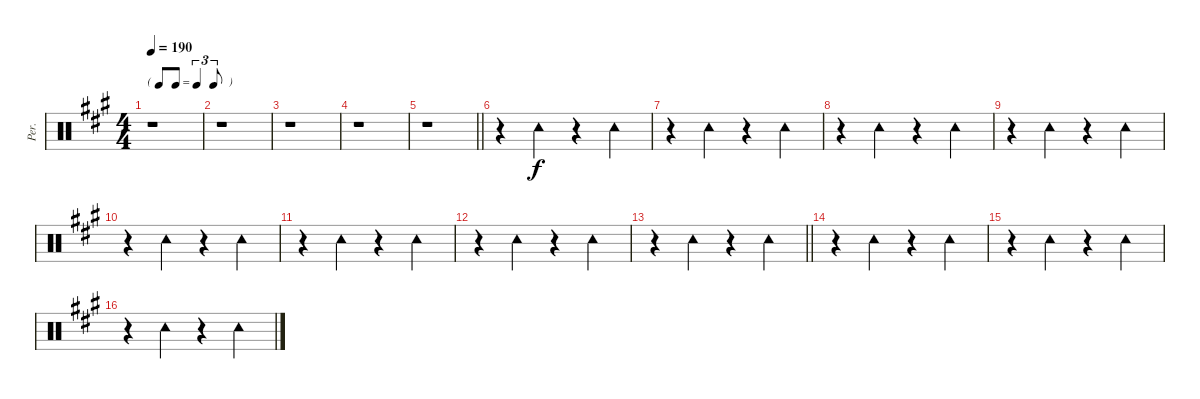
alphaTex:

\track ("Per." "Per.") {instrument percussion}
\staff {score}
\articulation defaults
\ts (4 4)
\tf triplet8th
\tempo 190
\clef neutral
\ks a
r.1{dy f} |
r.1 |
r.1 |
r.1 |
\barLineRight lightlight
r.1 |
r.4 "Tambourine (hit)".4 r.4 "Tambourine (hit)".4 |
r.4 "Tambourine (hit)".4 r.4 "Tambourine (hit)".4 |
r.4 "Tambourine (hit)".4 r.4 "Tambourine (hit)".4 |
r.4 "Tambourine (hit)".4 r.4 "Tambourine (hit)".4 |
r.4 "Tambourine (hit)".4 r.4 "Tambourine (hit)".4 |
r.4 "Tambourine (hit)".4 r.4 "Tambourine (hit)".4 |
r.4 "Tambourine (hit)".4 r.4 "Tambourine (hit)".4 |
\barLineRight lightlight
r.4 "Tambourine (hit)".4 r.4 "Tambourine (hit)".4 |
r.4 "Tambourine (hit)".4 r.4 "Tambourine (hit)".4 |
r.4 "Tambourine (hit)".4 r.4 "Tambourine (hit)".4 |
r.4 "Tambourine (hit)".4 r.4 "Tambourine (hit)".4
